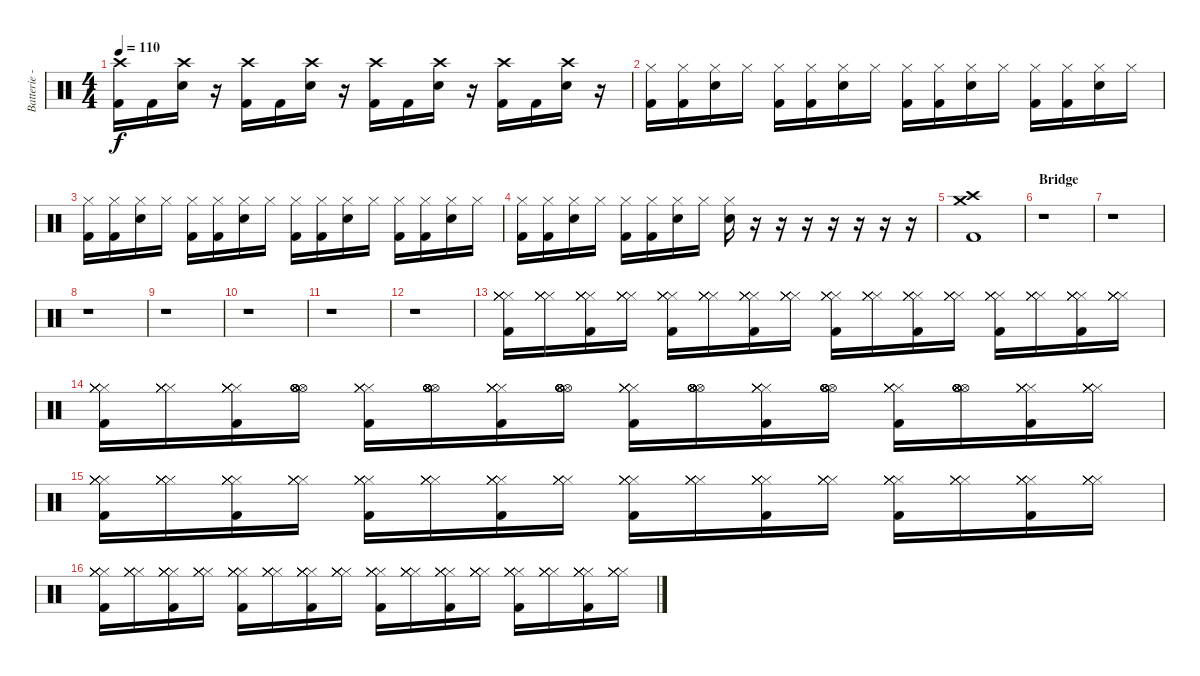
\track ("Batterie - Travis Barker" "Batterie -") {instrument percussion}
\staff {score}
\articulation defaults
\ts (4 4)
\tempo 110
\clef neutral
\ks c
("Crash high (hit)" "Kick (hit) 2").16{dy f} "Kick (hit) 2".16 ("Crash high (hit)" "Snare (hit) 2").16 r.16 ("Crash high (hit)" "Kick (hit) 2").16 "Kick (hit) 2".16 ("Crash high (hit)" "Snare (hit) 2").16 r.16 ("Crash high (hit)" "Kick (hit) 2").16 "Kick (hit) 2".16 ("Crash high (hit)" "Snare (hit) 2").16 r.16 ("Crash high (hit)" "Kick (hit) 2").16 "Kick (hit) 2".16 ("Crash high (hit)" "Snare (hit) 2").16 r.16 |
("Hi-Hat (closed)" "Kick (hit) 2").16 ("Hi-Hat (closed)" "Kick (hit) 2").16 ("Hi-Hat (closed)" "Snare (hit) 2").16 "Hi-Hat (closed)".16 ("Hi-Hat (closed)" "Kick (hit) 2").16 ("Hi-Hat (closed)" "Kick (hit) 2").16 ("Hi-Hat (closed)" "Snare (hit) 2").16 "Hi-Hat (closed)".16 ("Hi-Hat (closed)" "Kick (hit) 2").16 ("Hi-Hat (closed)" "Kick (hit) 2").16 ("Hi-Hat (closed)" "Snare (hit) 2").16 "Hi-Hat (closed)".16 ("Hi-Hat (closed)" "Kick (hit) 2").16 ("Hi-Hat (closed)" "Kick (hit) 2").16 ("Hi-Hat (closed)" "Snare (hit) 2").16 "Hi-Hat (closed)".16 |
("Hi-Hat (closed)" "Kick (hit) 2").16 ("Hi-Hat (closed)" "Kick (hit) 2").16 ("Hi-Hat (closed)" "Snare (hit) 2").16 "Hi-Hat (closed)".16 ("Hi-Hat (closed)" "Kick (hit) 2").16 ("Hi-Hat (closed)" "Kick (hit) 2").16 ("Hi-Hat (closed)" "Snare (hit) 2").16 "Hi-Hat (closed)".16 ("Hi-Hat (closed)" "Kick (hit) 2").16 ("Hi-Hat (closed)" "Kick (hit) 2").16 ("Hi-Hat (closed)" "Snare (hit) 2").16 "Hi-Hat (closed)".16 ("Hi-Hat (closed)" "Kick (hit) 2").16 ("Hi-Hat (closed)" "Kick (hit) 2").16 ("Hi-Hat (closed)" "Snare (hit) 2").16 "Hi-Hat (closed)".16 |
("Hi-Hat (closed)" "Kick (hit) 2").16 ("Hi-Hat (closed)" "Kick (hit) 2").16 ("Hi-Hat (closed)" "Snare (hit) 2").16 "Hi-Hat (closed)".16 ("Hi-Hat (closed)" "Kick (hit) 2").16 ("Hi-Hat (closed)" "Kick (hit) 2").16 ("Hi-Hat (closed)" "Snare (hit) 2").16 "Hi-Hat (closed)".16 ("Hi-Hat (closed)" "Snare (hit) 2").16 r.16 r.16 r.16 r.16 r.16 r.16 r.16 |
("Crash high (hit)" "Crash medium (hit)" "Kick (hit) 2").1 |
\section ("" "Bridge")
r.1 |
r.1 |
r.1 |
r.1 |
r.1 |
r.1 |
r.1 |
("Hi-Hat (closed)" "Kick (hit) 2" "Hi-Hat (closed)" "Hi-Hat (closed)" "Hi-Hat (closed)" "Hi-Hat (closed)").16 ("Hi-Hat (closed)" "Hi-Hat (closed)" "Hi-Hat (closed)" "Hi-Hat (closed)" "Hi-Hat (closed)").16 ("Hi-Hat (closed)" "Kick (hit) 2" "Hi-Hat (closed)" "Hi-Hat (closed)" "Hi-Hat (closed)" "Hi-Hat (closed)").16 ("Hi-Hat (closed)" "Hi-Hat (closed)" "Hi-Hat (closed)" "Hi-Hat (closed)" "Hi-Hat (closed)").16 ("Hi-Hat (closed)" "Kick (hit) 2" "Hi-Hat (closed)" "Hi-Hat (closed)" "Hi-Hat (closed)" "Hi-Hat (closed)").16 ("Hi-Hat (closed)" "Hi-Hat (closed)" "Hi-Hat (closed)" "Hi-Hat (closed)" "Hi-Hat (closed)").16 ("Hi-Hat (closed)" "Kick (hit) 2" "Hi-Hat (closed)" "Hi-Hat (closed)" "Hi-Hat (closed)" "Hi-Hat (closed)").16 ("Hi-Hat (closed)" "Hi-Hat (closed)" "Hi-Hat (closed)" "Hi-Hat (closed)" "Hi-Hat (closed)").16 ("Hi-Hat (closed)" "Kick (hit) 2" "Hi-Hat (closed)" "Hi-Hat (closed)" "Hi-Hat (closed)" "Hi-Hat (closed)").16 ("Hi-Hat (closed)" "Hi-Hat (closed)" "Hi-Hat (closed)" "Hi-Hat (closed)" "Hi-Hat (closed)").16 ("Hi-Hat (closed)" "Kick (hit) 2" "Hi-Hat (closed)" "Hi-Hat (closed)" "Hi-Hat (closed)" "Hi-Hat (closed)").16 ("Hi-Hat (closed)" "Hi-Hat (closed)" "Hi-Hat (closed)" "Hi-Hat (closed)" "Hi-Hat (closed)").16 ("Hi-Hat (closed)" "Kick (hit) 2" "Hi-Hat (closed)" "Hi-Hat (closed)" "Hi-Hat (closed)" "Hi-Hat (closed)").16 ("Hi-Hat (closed)" "Hi-Hat (closed)" "Hi-Hat (closed)" "Hi-Hat (closed)" "Hi-Hat (closed)").16 ("Hi-Hat (closed)" "Kick (hit) 2" "Hi-Hat (closed)" "Hi-Hat (closed)" "Hi-Hat (closed)" "Hi-Hat (closed)").16 ("Hi-Hat (closed)" "Hi-Hat (closed)" "Hi-Hat (closed)" "Hi-Hat (closed)" "Hi-Hat (closed)").16 |
("Hi-Hat (closed)" "Kick (hit) 2" "Hi-Hat (closed)" "Hi-Hat (closed)" "Hi-Hat (closed)" "Hi-Hat (closed)").16 ("Hi-Hat (closed)" "Hi-Hat (closed)" "Hi-Hat (closed)" "Hi-Hat (closed)" "Hi-Hat (closed)").16 ("Hi-Hat (closed)" "Kick (hit) 2" "Hi-Hat (closed)" "Hi-Hat (closed)" "Hi-Hat (closed)" "Hi-Hat (closed)").16 ("Hi-Hat (open)" "Hi-Hat (open)" "Hi-Hat (open)" "Hi-Hat (open)" "Hi-Hat (open)" "Hi-Hat (open)").16 ("Hi-Hat (closed)" "Kick (hit) 2" "Hi-Hat (closed)" "Hi-Hat (closed)" "Hi-Hat (closed)" "Hi-Hat (closed)").16 ("Hi-Hat (open)" "Hi-Hat (open)" "Hi-Hat (open)" "Hi-Hat (open)" "Hi-Hat (open)" "Hi-Hat (open)").16 ("Hi-Hat (closed)" "Kick (hit) 2" "Hi-Hat (closed)" "Hi-Hat (closed)" "Hi-Hat (closed)" "Hi-Hat (closed)").16 ("Hi-Hat (open)" "Hi-Hat (open)" "Hi-Hat (open)" "Hi-Hat (open)" "Hi-Hat (open)" "Hi-Hat (open)").16 ("Hi-Hat (closed)" "Kick (hit) 2" "Hi-Hat (closed)" "Hi-Hat (closed)" "Hi-Hat (closed)" "Hi-Hat (closed)").16 ("Hi-Hat (open)" "Hi-Hat (open)" "Hi-Hat (open)" "Hi-Hat (open)" "Hi-Hat (open)" "Hi-Hat (open)").16 ("Hi-Hat (closed)" "Kick (hit) 2" "Hi-Hat (closed)" "Hi-Hat (closed)" "Hi-Hat (closed)" "Hi-Hat (closed)").16 ("Hi-Hat (open)" "Hi-Hat (open)" "Hi-Hat (open)" "Hi-Hat (open)" "Hi-Hat (open)" "Hi-Hat (open)").16 ("Hi-Hat (closed)" "Kick (hit) 2" "Hi-Hat (closed)" "Hi-Hat (closed)" "Hi-Hat (closed)" "Hi-Hat (closed)").16 ("Hi-Hat (open)" "Hi-Hat (open)" "Hi-Hat (open)" "Hi-Hat (open)" "Hi-Hat (open)" "Hi-Hat (open)").16 ("Hi-Hat (closed)" "Kick (hit) 2" "Hi-Hat (closed)" "Hi-Hat (closed)" "Hi-Hat (closed)" "Hi-Hat (closed)").16 ("Hi-Hat (closed)" "Hi-Hat (closed)" "Hi-Hat (closed)" "Hi-Hat (closed)" "Hi-Hat (closed)").16 |
("Hi-Hat (closed)" "Kick (hit) 2" "Hi-Hat (closed)" "Hi-Hat (closed)" "Hi-Hat (closed)" "Hi-Hat (closed)").16 ("Hi-Hat (closed)" "Hi-Hat (closed)" "Hi-Hat (closed)" "Hi-Hat (closed)" "Hi-Hat (closed)").16 ("Hi-Hat (closed)" "Kick (hit) 2" "Hi-Hat (closed)" "Hi-Hat (closed)" "Hi-Hat (closed)" "Hi-Hat (closed)").16 ("Hi-Hat (closed)" "Hi-Hat (closed)" "Hi-Hat (closed)" "Hi-Hat (closed)" "Hi-Hat (closed)").16 ("Hi-Hat (closed)" "Kick (hit) 2" "Hi-Hat (closed)" "Hi-Hat (closed)" "Hi-Hat (closed)" "Hi-Hat (closed)").16 ("Hi-Hat (closed)" "Hi-Hat (closed)" "Hi-Hat (closed)" "Hi-Hat (closed)" "Hi-Hat (closed)").16 ("Hi-Hat (closed)" "Kick (hit) 2" "Hi-Hat (closed)" "Hi-Hat (closed)" "Hi-Hat (closed)" "Hi-Hat (closed)").16 ("Hi-Hat (closed)" "Hi-Hat (closed)" "Hi-Hat (closed)" "Hi-Hat (closed)" "Hi-Hat (closed)").16 ("Hi-Hat (closed)" "Kick (hit) 2" "Hi-Hat (closed)" "Hi-Hat (closed)" "Hi-Hat (closed)" "Hi-Hat (closed)").16 ("Hi-Hat (closed)" "Hi-Hat (closed)" "Hi-Hat (closed)" "Hi-Hat (closed)" "Hi-Hat (closed)").16 ("Hi-Hat (closed)" "Kick (hit) 2" "Hi-Hat (closed)" "Hi-Hat (closed)" "Hi-Hat (closed)" "Hi-Hat (closed)").16 ("Hi-Hat (closed)" "Hi-Hat (closed)" "Hi-Hat (closed)" "Hi-Hat (closed)" "Hi-Hat (closed)").16 ("Hi-Hat (closed)" "Kick (hit) 2" "Hi-Hat (closed)" "Hi-Hat (closed)" "Hi-Hat (closed)" "Hi-Hat (closed)").16 ("Hi-Hat (closed)" "Hi-Hat (closed)" "Hi-Hat (closed)" "Hi-Hat (closed)" "Hi-Hat (closed)").16 ("Hi-Hat (closed)" "Kick (hit) 2" "Hi-Hat (closed)" "Hi-Hat (closed)" "Hi-Hat (closed)" "Hi-Hat (closed)").16 ("Hi-Hat (closed)" "Hi-Hat (closed)" "Hi-Hat (closed)" "Hi-Hat (closed)" "Hi-Hat (closed)").16 |
("Hi-Hat (closed)" "Kick (hit) 2" "Hi-Hat (closed)" "Hi-Hat (closed)" "Hi-Hat (closed)" "Hi-Hat (closed)").16 ("Hi-Hat (closed)" "Hi-Hat (closed)" "Hi-Hat (closed)" "Hi-Hat (closed)" "Hi-Hat (closed)").16 ("Hi-Hat (closed)" "Kick (hit) 2" "Hi-Hat (closed)" "Hi-Hat (closed)" "Hi-Hat (closed)" "Hi-Hat (closed)").16 ("Hi-Hat (closed)" "Hi-Hat (closed)" "Hi-Hat (closed)" "Hi-Hat (closed)" "Hi-Hat (closed)").16 ("Hi-Hat (closed)" "Kick (hit) 2" "Hi-Hat (closed)" "Hi-Hat (closed)" "Hi-Hat (closed)" "Hi-Hat (closed)").16 ("Hi-Hat (closed)" "Hi-Hat (closed)" "Hi-Hat (closed)" "Hi-Hat (closed)" "Hi-Hat (closed)").16 ("Hi-Hat (closed)" "Kick (hit) 2" "Hi-Hat (closed)" "Hi-Hat (closed)" "Hi-Hat (closed)" "Hi-Hat (closed)").16 ("Hi-Hat (closed)" "Hi-Hat (closed)" "Hi-Hat (closed)" "Hi-Hat (closed)" "Hi-Hat (closed)").16 ("Hi-Hat (closed)" "Kick (hit) 2" "Hi-Hat (closed)" "Hi-Hat (closed)" "Hi-Hat (closed)" "Hi-Hat (closed)").16 ("Hi-Hat (closed)" "Hi-Hat (closed)" "Hi-Hat (closed)" "Hi-Hat (closed)" "Hi-Hat (closed)").16 ("Hi-Hat (closed)" "Kick (hit) 2" "Hi-Hat (closed)" "Hi-Hat (closed)" "Hi-Hat (closed)" "Hi-Hat (closed)").16 ("Hi-Hat (closed)" "Hi-Hat (closed)" "Hi-Hat (closed)" "Hi-Hat (closed)" "Hi-Hat (closed)").16 ("Hi-Hat (closed)" "Kick (hit) 2" "Hi-Hat (closed)" "Hi-Hat (closed)" "Hi-Hat (closed)" "Hi-Hat (closed)").16 ("Hi-Hat (closed)" "Hi-Hat (closed)" "Hi-Hat (closed)" "Hi-Hat (closed)" "Hi-Hat (closed)").16 ("Hi-Hat (closed)" "Kick (hit) 2" "Hi-Hat (closed)" "Hi-Hat (closed)" "Hi-Hat (closed)" "Hi-Hat (closed)").16 ("Hi-Hat (closed)" "Hi-Hat (closed)" "Hi-Hat (closed)" "Hi-Hat (closed)" "Hi-Hat (closed)").16
